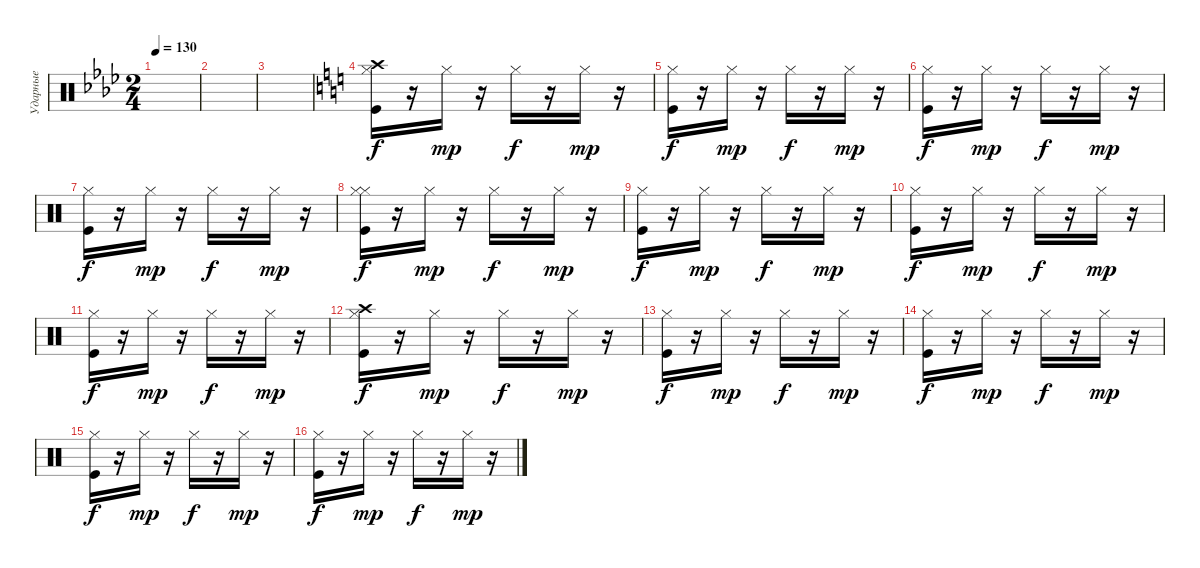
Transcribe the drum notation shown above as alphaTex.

\track ("Ударные" "Ударные") {instrument percussion}
\staff {score}
\articulation defaults
\ts (2 4)
\tempo 130
\clef neutral
\ks ab
|
|
|
\ks c
("Kick (hit)" "Hi-Hat (closed)" "Crash high (hit)").16{dy f} r.16 "Hi-Hat (closed)".16{dy mp} r.16 "Hi-Hat (closed)".16{dy f} r.16 "Hi-Hat (closed)".16{dy mp} r.16 |
("Kick (hit)" "Hi-Hat (closed)").16{dy f} r.16 "Hi-Hat (closed)".16{dy mp} r.16 "Hi-Hat (closed)".16{dy f} r.16 "Hi-Hat (closed)".16{dy mp} r.16 |
("Kick (hit)" "Hi-Hat (closed)").16{dy f} r.16 "Hi-Hat (closed)".16{dy mp} r.16 "Hi-Hat (closed)".16{dy f} r.16 "Hi-Hat (closed)".16{dy mp} r.16 |
("Kick (hit)" "Hi-Hat (closed)").16{dy f} r.16 "Hi-Hat (closed)".16{dy mp} r.16 "Hi-Hat (closed)".16{dy f} r.16 "Hi-Hat (closed)".16{dy mp} r.16 |
("Kick (hit)" "Hi-Hat (closed)" "Hi-Hat (closed)").16{dy f} r.16 "Hi-Hat (closed)".16{dy mp} r.16 "Hi-Hat (closed)".16{dy f} r.16 "Hi-Hat (closed)".16{dy mp} r.16 |
("Kick (hit)" "Hi-Hat (closed)").16{dy f} r.16 "Hi-Hat (closed)".16{dy mp} r.16 "Hi-Hat (closed)".16{dy f} r.16 "Hi-Hat (closed)".16{dy mp} r.16 |
("Kick (hit)" "Hi-Hat (closed)").16{dy f} r.16 "Hi-Hat (closed)".16{dy mp} r.16 "Hi-Hat (closed)".16{dy f} r.16 "Hi-Hat (closed)".16{dy mp} r.16 |
("Kick (hit)" "Hi-Hat (closed)").16{dy f} r.16 "Hi-Hat (closed)".16{dy mp} r.16 "Hi-Hat (closed)".16{dy f} r.16 "Hi-Hat (closed)".16{dy mp} r.16 |
("Kick (hit)" "Hi-Hat (closed)" "Crash high (hit)").16{dy f} r.16 "Hi-Hat (closed)".16{dy mp} r.16 "Hi-Hat (closed)".16{dy f} r.16 "Hi-Hat (closed)".16{dy mp} r.16 |
("Kick (hit)" "Hi-Hat (closed)").16{dy f} r.16 "Hi-Hat (closed)".16{dy mp} r.16 "Hi-Hat (closed)".16{dy f} r.16 "Hi-Hat (closed)".16{dy mp} r.16 |
("Kick (hit)" "Hi-Hat (closed)").16{dy f} r.16 "Hi-Hat (closed)".16{dy mp} r.16 "Hi-Hat (closed)".16{dy f} r.16 "Hi-Hat (closed)".16{dy mp} r.16 |
("Kick (hit)" "Hi-Hat (closed)").16{dy f} r.16 "Hi-Hat (closed)".16{dy mp} r.16 "Hi-Hat (closed)".16{dy f} r.16 "Hi-Hat (closed)".16{dy mp} r.16 |
("Kick (hit)" "Hi-Hat (closed)").16{dy f} r.16 "Hi-Hat (closed)".16{dy mp} r.16 "Hi-Hat (closed)".16{dy f} r.16 "Hi-Hat (closed)".16{dy mp} r.16
